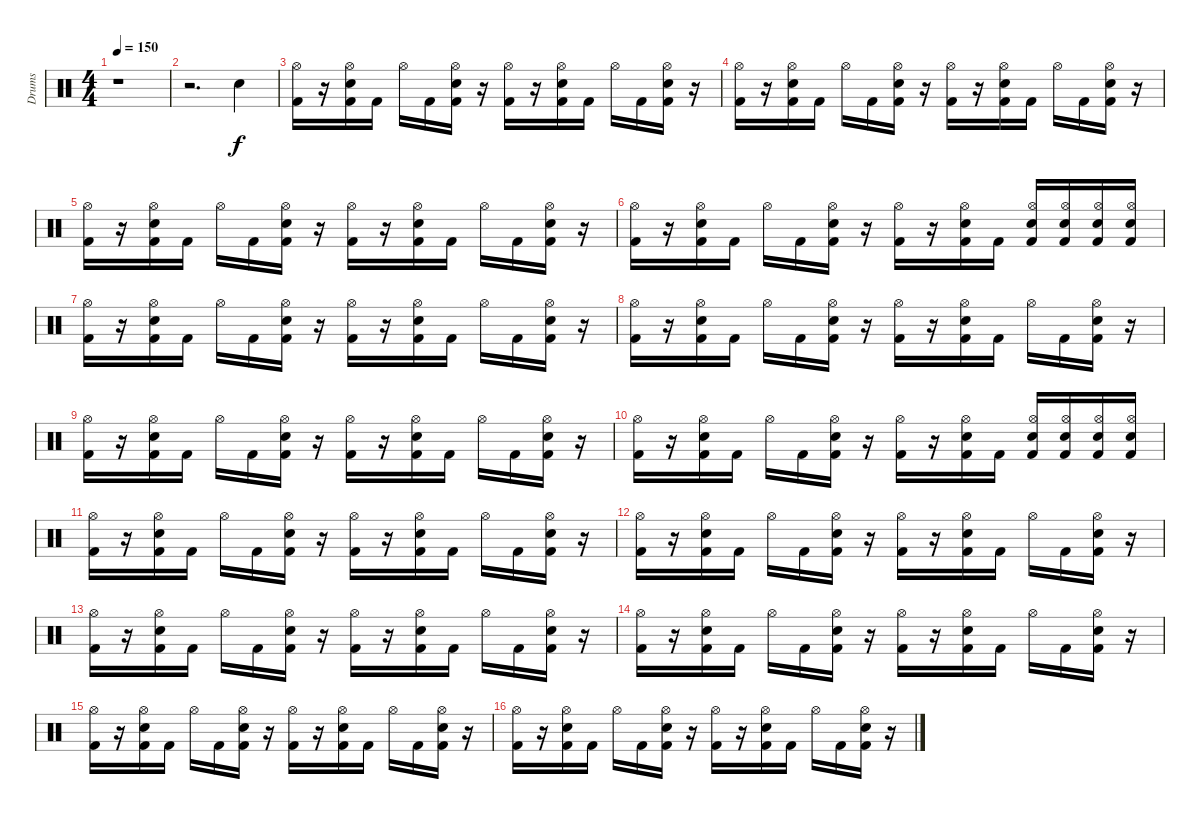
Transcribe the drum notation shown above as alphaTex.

\track ("Drums" "Drums") {instrument percussion}
\staff {score}
\articulation defaults
\ts (4 4)
\tempo 150
\clef neutral
\ks c
r.1{dy f} |
r.2{d} "Electric Snare (hit)".4 |
("Hi-Hat (open)" "Kick (hit) 2").16 r.16 ("Hi-Hat (open)" "Electric Snare (hit)" "Kick (hit) 2").16 "Kick (hit) 2".16 "Hi-Hat (open)".16 "Kick (hit) 2".16 ("Hi-Hat (open)" "Electric Snare (hit)" "Kick (hit) 2").16 r.16 ("Hi-Hat (open)" "Kick (hit) 2").16 r.16 ("Hi-Hat (open)" "Electric Snare (hit)" "Kick (hit) 2").16 "Kick (hit) 2".16 "Hi-Hat (open)".16 "Kick (hit) 2".16 ("Hi-Hat (open)" "Electric Snare (hit)" "Kick (hit) 2").16 r.16 |
("Hi-Hat (open)" "Kick (hit) 2").16 r.16 ("Hi-Hat (open)" "Electric Snare (hit)" "Kick (hit) 2").16 "Kick (hit) 2".16 "Hi-Hat (open)".16 "Kick (hit) 2".16 ("Hi-Hat (open)" "Electric Snare (hit)" "Kick (hit) 2").16 r.16 ("Hi-Hat (open)" "Kick (hit) 2").16 r.16 ("Hi-Hat (open)" "Electric Snare (hit)" "Kick (hit) 2").16 "Kick (hit) 2".16 "Hi-Hat (open)".16 "Kick (hit) 2".16 ("Hi-Hat (open)" "Electric Snare (hit)" "Kick (hit) 2").16 r.16 |
("Hi-Hat (open)" "Kick (hit) 2").16 r.16 ("Hi-Hat (open)" "Electric Snare (hit)" "Kick (hit) 2").16 "Kick (hit) 2".16 "Hi-Hat (open)".16 "Kick (hit) 2".16 ("Hi-Hat (open)" "Electric Snare (hit)" "Kick (hit) 2").16 r.16 ("Hi-Hat (open)" "Kick (hit) 2").16 r.16 ("Hi-Hat (open)" "Electric Snare (hit)" "Kick (hit) 2").16 "Kick (hit) 2".16 "Hi-Hat (open)".16 "Kick (hit) 2".16 ("Hi-Hat (open)" "Electric Snare (hit)" "Kick (hit) 2").16 r.16 |
("Hi-Hat (open)" "Kick (hit) 2").16 r.16 ("Hi-Hat (open)" "Electric Snare (hit)" "Kick (hit) 2").16 "Kick (hit) 2".16 "Hi-Hat (open)".16 "Kick (hit) 2".16 ("Hi-Hat (open)" "Electric Snare (hit)" "Kick (hit) 2").16 r.16 ("Hi-Hat (open)" "Kick (hit) 2").16 r.16 ("Hi-Hat (open)" "Electric Snare (hit)" "Kick (hit) 2").16 "Kick (hit) 2".16 ("Hi-Hat (open)" "Electric Snare (hit)" "Kick (hit) 2").16 ("Hi-Hat (open)" "Electric Snare (hit)" "Kick (hit) 2").16 ("Hi-Hat (open)" "Electric Snare (hit)" "Kick (hit) 2").16 ("Hi-Hat (open)" "Electric Snare (hit)" "Kick (hit) 2").16 |
("Hi-Hat (open)" "Kick (hit) 2").16 r.16 ("Hi-Hat (open)" "Electric Snare (hit)" "Kick (hit) 2").16 "Kick (hit) 2".16 "Hi-Hat (open)".16 "Kick (hit) 2".16 ("Hi-Hat (open)" "Electric Snare (hit)" "Kick (hit) 2").16 r.16 ("Hi-Hat (open)" "Kick (hit) 2").16 r.16 ("Hi-Hat (open)" "Electric Snare (hit)" "Kick (hit) 2").16 "Kick (hit) 2".16 "Hi-Hat (open)".16 "Kick (hit) 2".16 ("Hi-Hat (open)" "Electric Snare (hit)" "Kick (hit) 2").16 r.16 |
("Hi-Hat (open)" "Kick (hit) 2").16 r.16 ("Hi-Hat (open)" "Electric Snare (hit)" "Kick (hit) 2").16 "Kick (hit) 2".16 "Hi-Hat (open)".16 "Kick (hit) 2".16 ("Hi-Hat (open)" "Electric Snare (hit)" "Kick (hit) 2").16 r.16 ("Hi-Hat (open)" "Kick (hit) 2").16 r.16 ("Hi-Hat (open)" "Electric Snare (hit)" "Kick (hit) 2").16 "Kick (hit) 2".16 "Hi-Hat (open)".16 "Kick (hit) 2".16 ("Hi-Hat (open)" "Electric Snare (hit)" "Kick (hit) 2").16 r.16 |
("Hi-Hat (open)" "Kick (hit) 2").16 r.16 ("Hi-Hat (open)" "Electric Snare (hit)" "Kick (hit) 2").16 "Kick (hit) 2".16 "Hi-Hat (open)".16 "Kick (hit) 2".16 ("Hi-Hat (open)" "Electric Snare (hit)" "Kick (hit) 2").16 r.16 ("Hi-Hat (open)" "Kick (hit) 2").16 r.16 ("Hi-Hat (open)" "Electric Snare (hit)" "Kick (hit) 2").16 "Kick (hit) 2".16 "Hi-Hat (open)".16 "Kick (hit) 2".16 ("Hi-Hat (open)" "Electric Snare (hit)" "Kick (hit) 2").16 r.16 |
("Hi-Hat (open)" "Kick (hit) 2").16 r.16 ("Hi-Hat (open)" "Electric Snare (hit)" "Kick (hit) 2").16 "Kick (hit) 2".16 "Hi-Hat (open)".16 "Kick (hit) 2".16 ("Hi-Hat (open)" "Electric Snare (hit)" "Kick (hit) 2").16 r.16 ("Hi-Hat (open)" "Kick (hit) 2").16 r.16 ("Hi-Hat (open)" "Electric Snare (hit)" "Kick (hit) 2").16 "Kick (hit) 2".16 ("Hi-Hat (open)" "Electric Snare (hit)" "Kick (hit) 2").16 ("Hi-Hat (open)" "Electric Snare (hit)" "Kick (hit) 2").16 ("Hi-Hat (open)" "Electric Snare (hit)" "Kick (hit) 2").16 ("Hi-Hat (open)" "Electric Snare (hit)" "Kick (hit) 2").16 |
("Hi-Hat (open)" "Kick (hit) 2").16 r.16 ("Hi-Hat (open)" "Electric Snare (hit)" "Kick (hit) 2").16 "Kick (hit) 2".16 "Hi-Hat (open)".16 "Kick (hit) 2".16 ("Hi-Hat (open)" "Electric Snare (hit)" "Kick (hit) 2").16 r.16 ("Hi-Hat (open)" "Kick (hit) 2").16 r.16 ("Hi-Hat (open)" "Electric Snare (hit)" "Kick (hit) 2").16 "Kick (hit) 2".16 "Hi-Hat (open)".16 "Kick (hit) 2".16 ("Hi-Hat (open)" "Electric Snare (hit)" "Kick (hit) 2").16 r.16 |
("Hi-Hat (open)" "Kick (hit) 2").16 r.16 ("Hi-Hat (open)" "Electric Snare (hit)" "Kick (hit) 2").16 "Kick (hit) 2".16 "Hi-Hat (open)".16 "Kick (hit) 2".16 ("Hi-Hat (open)" "Electric Snare (hit)" "Kick (hit) 2").16 r.16 ("Hi-Hat (open)" "Kick (hit) 2").16 r.16 ("Hi-Hat (open)" "Electric Snare (hit)" "Kick (hit) 2").16 "Kick (hit) 2".16 "Hi-Hat (open)".16 "Kick (hit) 2".16 ("Hi-Hat (open)" "Electric Snare (hit)" "Kick (hit) 2").16 r.16 |
("Hi-Hat (open)" "Kick (hit) 2").16 r.16 ("Hi-Hat (open)" "Electric Snare (hit)" "Kick (hit) 2").16 "Kick (hit) 2".16 "Hi-Hat (open)".16 "Kick (hit) 2".16 ("Hi-Hat (open)" "Electric Snare (hit)" "Kick (hit) 2").16 r.16 ("Hi-Hat (open)" "Kick (hit) 2").16 r.16 ("Hi-Hat (open)" "Electric Snare (hit)" "Kick (hit) 2").16 "Kick (hit) 2".16 "Hi-Hat (open)".16 "Kick (hit) 2".16 ("Hi-Hat (open)" "Electric Snare (hit)" "Kick (hit) 2").16 r.16 |
("Hi-Hat (open)" "Kick (hit) 2").16 r.16 ("Hi-Hat (open)" "Electric Snare (hit)" "Kick (hit) 2").16 "Kick (hit) 2".16 "Hi-Hat (open)".16 "Kick (hit) 2".16 ("Hi-Hat (open)" "Electric Snare (hit)" "Kick (hit) 2").16 r.16 ("Hi-Hat (open)" "Kick (hit) 2").16 r.16 ("Hi-Hat (open)" "Electric Snare (hit)" "Kick (hit) 2").16 "Kick (hit) 2".16 "Hi-Hat (open)".16 "Kick (hit) 2".16 ("Hi-Hat (open)" "Electric Snare (hit)" "Kick (hit) 2").16 r.16 |
("Hi-Hat (open)" "Kick (hit) 2").16 r.16 ("Hi-Hat (open)" "Electric Snare (hit)" "Kick (hit) 2").16 "Kick (hit) 2".16 "Hi-Hat (open)".16 "Kick (hit) 2".16 ("Hi-Hat (open)" "Electric Snare (hit)" "Kick (hit) 2").16 r.16 ("Hi-Hat (open)" "Kick (hit) 2").16 r.16 ("Hi-Hat (open)" "Electric Snare (hit)" "Kick (hit) 2").16 "Kick (hit) 2".16 "Hi-Hat (open)".16 "Kick (hit) 2".16 ("Hi-Hat (open)" "Electric Snare (hit)" "Kick (hit) 2").16 r.16 |
("Hi-Hat (open)" "Kick (hit) 2").16 r.16 ("Hi-Hat (open)" "Electric Snare (hit)" "Kick (hit) 2").16 "Kick (hit) 2".16 "Hi-Hat (open)".16 "Kick (hit) 2".16 ("Hi-Hat (open)" "Electric Snare (hit)" "Kick (hit) 2").16 r.16 ("Hi-Hat (open)" "Kick (hit) 2").16 r.16 ("Hi-Hat (open)" "Electric Snare (hit)" "Kick (hit) 2").16 "Kick (hit) 2".16 "Hi-Hat (open)".16 "Kick (hit) 2".16 ("Hi-Hat (open)" "Electric Snare (hit)" "Kick (hit) 2").16 r.16
